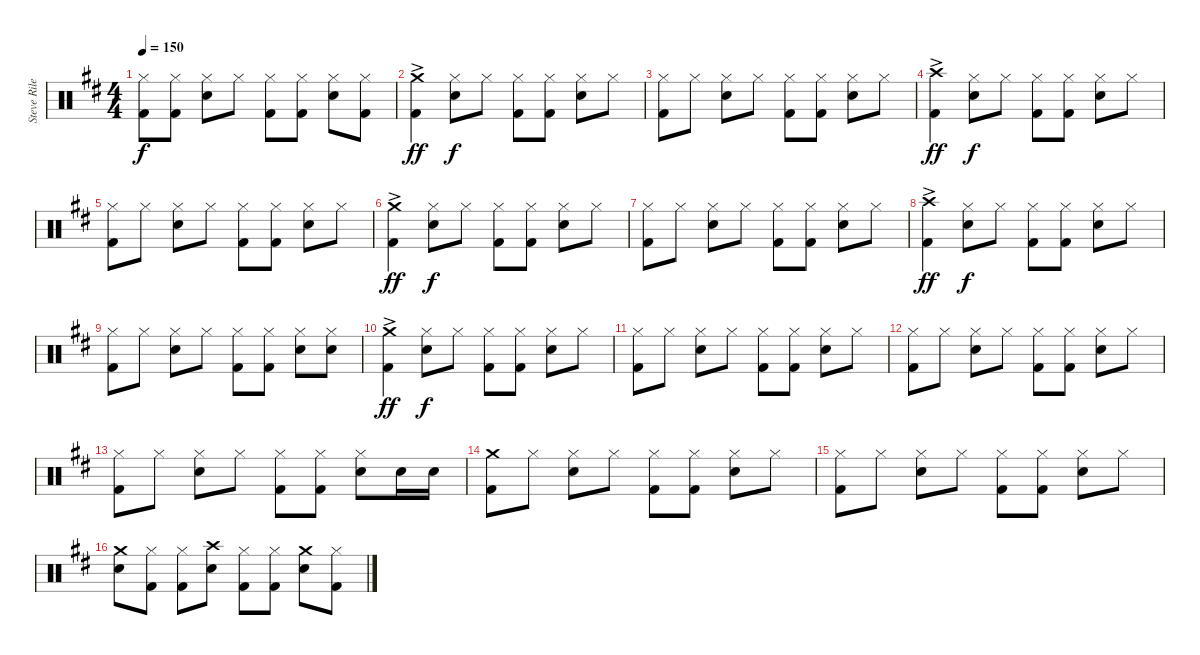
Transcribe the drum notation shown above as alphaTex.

\track ("Steve Riley" "Steve Rile") {instrument percussion}
\staff {score}
\articulation defaults
\ts (4 4)
\tempo 150
\clef neutral
\ks d
("Hi-Hat (closed)" "Kick (hit) 2").8{dy f} ("Hi-Hat (closed)" "Kick (hit) 2").8 ("Hi-Hat (closed)" "Electric Snare (hit)").8 "Hi-Hat (closed)".8 ("Hi-Hat (closed)" "Kick (hit) 2").8 ("Hi-Hat (closed)" "Kick (hit) 2").8 ("Hi-Hat (closed)" "Electric Snare (hit)").8 ("Hi-Hat (closed)" "Kick (hit) 2").8 |
("Crash medium (hit)"{ac} "Kick (hit) 2").4{dy ff} ("Hi-Hat (closed)" "Electric Snare (hit)").8{dy f} "Hi-Hat (closed)".8 ("Hi-Hat (closed)" "Kick (hit) 2").8 ("Hi-Hat (closed)" "Kick (hit) 2").8 ("Hi-Hat (closed)" "Electric Snare (hit)").8 "Hi-Hat (closed)".8 |
("Hi-Hat (closed)" "Kick (hit) 2").8 "Hi-Hat (closed)".8 ("Hi-Hat (closed)" "Electric Snare (hit)").8 "Hi-Hat (closed)".8 ("Hi-Hat (closed)" "Kick (hit) 2").8 ("Hi-Hat (closed)" "Kick (hit) 2").8 ("Hi-Hat (closed)" "Electric Snare (hit)").8 "Hi-Hat (closed)".8 |
("Crash high (hit)"{ac} "Kick (hit) 2").4{dy ff} ("Hi-Hat (closed)" "Electric Snare (hit)").8{dy f} "Hi-Hat (closed)".8 ("Hi-Hat (closed)" "Kick (hit) 2").8 ("Hi-Hat (closed)" "Kick (hit) 2").8 ("Hi-Hat (closed)" "Electric Snare (hit)").8 "Hi-Hat (closed)".8 |
("Hi-Hat (closed)" "Kick (hit) 2").8 "Hi-Hat (closed)".8 ("Hi-Hat (closed)" "Electric Snare (hit)").8 "Hi-Hat (closed)".8 ("Hi-Hat (closed)" "Kick (hit) 2").8 ("Hi-Hat (closed)" "Kick (hit) 2").8 ("Hi-Hat (closed)" "Electric Snare (hit)").8 "Hi-Hat (closed)".8 |
("Crash medium (hit)"{ac} "Kick (hit) 2").4{dy ff} ("Hi-Hat (closed)" "Electric Snare (hit)").8{dy f} "Hi-Hat (closed)".8 ("Hi-Hat (closed)" "Kick (hit) 2").8 ("Hi-Hat (closed)" "Kick (hit) 2").8 ("Hi-Hat (closed)" "Electric Snare (hit)").8 "Hi-Hat (closed)".8 |
("Hi-Hat (closed)" "Kick (hit) 2").8 "Hi-Hat (closed)".8 ("Hi-Hat (closed)" "Electric Snare (hit)").8 "Hi-Hat (closed)".8 ("Hi-Hat (closed)" "Kick (hit) 2").8 ("Hi-Hat (closed)" "Kick (hit) 2").8 ("Hi-Hat (closed)" "Electric Snare (hit)").8 "Hi-Hat (closed)".8 |
("Crash high (hit)"{ac} "Kick (hit) 2").4{dy ff} ("Hi-Hat (closed)" "Electric Snare (hit)").8{dy f} "Hi-Hat (closed)".8 ("Hi-Hat (closed)" "Kick (hit) 2").8 ("Hi-Hat (closed)" "Kick (hit) 2").8 ("Hi-Hat (closed)" "Electric Snare (hit)").8 "Hi-Hat (closed)".8 |
("Hi-Hat (closed)" "Kick (hit) 2").8 "Hi-Hat (closed)".8 ("Hi-Hat (closed)" "Electric Snare (hit)").8 "Hi-Hat (closed)".8 ("Hi-Hat (closed)" "Kick (hit) 2").8 ("Hi-Hat (closed)" "Kick (hit) 2").8 ("Hi-Hat (closed)" "Electric Snare (hit)").8 ("Hi-Hat (closed)" "Electric Snare (hit)").8 |
("Crash medium (hit)"{ac} "Kick (hit) 2").4{dy ff} ("Hi-Hat (closed)" "Electric Snare (hit)").8{dy f} "Hi-Hat (closed)".8 ("Hi-Hat (closed)" "Kick (hit) 2").8 ("Hi-Hat (closed)" "Kick (hit) 2").8 ("Hi-Hat (closed)" "Electric Snare (hit)").8 "Hi-Hat (closed)".8 |
("Hi-Hat (closed)" "Kick (hit) 2").8 "Hi-Hat (closed)".8 ("Hi-Hat (closed)" "Electric Snare (hit)").8 "Hi-Hat (closed)".8 ("Hi-Hat (closed)" "Kick (hit) 2").8 ("Hi-Hat (closed)" "Kick (hit) 2").8 ("Hi-Hat (closed)" "Electric Snare (hit)").8 "Hi-Hat (closed)".8 |
("Hi-Hat (closed)" "Kick (hit) 2").8 "Hi-Hat (closed)".8 ("Hi-Hat (closed)" "Electric Snare (hit)").8 "Hi-Hat (closed)".8 ("Hi-Hat (closed)" "Kick (hit) 2").8 ("Hi-Hat (closed)" "Kick (hit) 2").8 ("Hi-Hat (closed)" "Electric Snare (hit)").8 "Hi-Hat (closed)".8 |
("Hi-Hat (closed)" "Kick (hit) 2").8 "Hi-Hat (closed)".8 ("Hi-Hat (closed)" "Electric Snare (hit)").8 "Hi-Hat (closed)".8 ("Hi-Hat (closed)" "Kick (hit) 2").8 ("Hi-Hat (closed)" "Kick (hit) 2").8 ("Hi-Hat (closed)" "Electric Snare (hit)").8 "Electric Snare (hit)".16 "Electric Snare (hit)".16 |
("Crash medium (hit)" "Kick (hit) 2").8 "Hi-Hat (closed)".8 ("Hi-Hat (closed)" "Electric Snare (hit)").8 "Hi-Hat (closed)".8 ("Hi-Hat (closed)" "Kick (hit) 2").8 ("Hi-Hat (closed)" "Kick (hit) 2").8 ("Hi-Hat (closed)" "Electric Snare (hit)").8 "Hi-Hat (closed)".8 |
("Hi-Hat (closed)" "Kick (hit) 2").8 "Hi-Hat (closed)".8 ("Hi-Hat (closed)" "Electric Snare (hit)").8 "Hi-Hat (closed)".8 ("Hi-Hat (closed)" "Kick (hit) 2").8 ("Hi-Hat (closed)" "Kick (hit) 2").8 ("Hi-Hat (closed)" "Electric Snare (hit)").8 "Hi-Hat (closed)".8 |
("Crash medium (hit)" "Electric Snare (hit)").8 ("Hi-Hat (closed)" "Kick (hit) 2").8 ("Hi-Hat (closed)" "Kick (hit) 2").8 ("Crash high (hit)" "Electric Snare (hit)").8 ("Hi-Hat (closed)" "Kick (hit) 2").8 ("Hi-Hat (closed)" "Kick (hit) 2").8 ("Crash medium (hit)" "Electric Snare (hit)").8 ("Hi-Hat (closed)" "Kick (hit) 2").8
